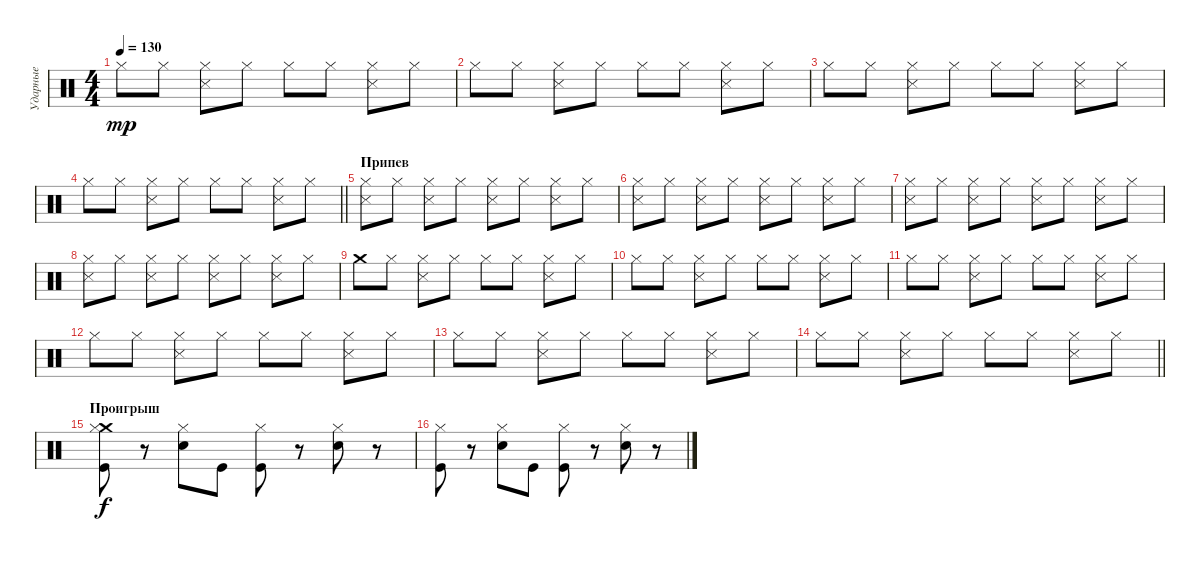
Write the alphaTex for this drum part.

\track ("Ударные" "Ударные") {instrument percussion}
\staff {score}
\articulation defaults
\ts (4 4)
\tempo 130
\clef neutral
\ks c "Hi-Hat (closed)".8{dy mp} "Hi-Hat (closed)".8
("Hi-Hat (closed)" "Snare (side stick) 3").8 "Hi-Hat (closed)".8 "Hi-Hat (closed)".8 "Hi-Hat (closed)".8 ("Hi-Hat (closed)" "Snare (side stick) 3").8 "Hi-Hat (closed)".8 |
"Hi-Hat (closed)".8 "Hi-Hat (closed)".8 ("Hi-Hat (closed)" "Snare (side stick) 3").8 "Hi-Hat (closed)".8 "Hi-Hat (closed)".8 "Hi-Hat (closed)".8 ("Hi-Hat (closed)" "Snare (side stick) 3").8 "Hi-Hat (closed)".8 |
"Hi-Hat (closed)".8 "Hi-Hat (closed)".8 ("Hi-Hat (closed)" "Snare (side stick) 3").8 "Hi-Hat (closed)".8 "Hi-Hat (closed)".8 "Hi-Hat (closed)".8 ("Hi-Hat (closed)" "Snare (side stick) 3").8 "Hi-Hat (closed)".8 |
\barLineRight lightlight "Hi-Hat (closed)".8 "Hi-Hat (closed)".8
("Hi-Hat (closed)" "Snare (side stick) 3").8 "Hi-Hat (closed)".8 "Hi-Hat (closed)".8 "Hi-Hat (closed)".8 ("Hi-Hat (closed)" "Snare (side stick) 3").8 "Hi-Hat (closed)".8 |
\section ("" "Припев")
("Hi-Hat (closed)" "Snare (side stick) 3").8 "Hi-Hat (closed)".8 ("Hi-Hat (closed)" "Snare (side stick) 3").8 "Hi-Hat (closed)".8 ("Hi-Hat (closed)" "Snare (side stick) 3").8 "Hi-Hat (closed)".8 ("Hi-Hat (closed)" "Snare (side stick) 3").8 "Hi-Hat (closed)".8 |
("Hi-Hat (closed)" "Snare (side stick) 3").8 "Hi-Hat (closed)".8 ("Hi-Hat (closed)" "Snare (side stick) 3").8 "Hi-Hat (closed)".8 ("Hi-Hat (closed)" "Snare (side stick) 3").8 "Hi-Hat (closed)".8 ("Hi-Hat (closed)" "Snare (side stick) 3").8 "Hi-Hat (closed)".8 |
("Hi-Hat (closed)" "Snare (side stick) 3").8 "Hi-Hat (closed)".8 ("Hi-Hat (closed)" "Snare (side stick) 3").8 "Hi-Hat (closed)".8 ("Hi-Hat (closed)" "Snare (side stick) 3").8 "Hi-Hat (closed)".8 ("Hi-Hat (closed)" "Snare (side stick) 3").8 "Hi-Hat (closed)".8 |
("Hi-Hat (closed)" "Snare (side stick) 3").8 "Hi-Hat (closed)".8 ("Hi-Hat (closed)" "Snare (side stick) 3").8 "Hi-Hat (closed)".8 ("Hi-Hat (closed)" "Snare (side stick) 3").8 "Hi-Hat (closed)".8 ("Hi-Hat (closed)" "Snare (side stick) 3").8 "Hi-Hat (closed)".8 |
"Crash medium (hit)".8 "Hi-Hat (closed)".8 ("Hi-Hat (closed)" "Snare (side stick) 3").8 "Hi-Hat (closed)".8 "Hi-Hat (closed)".8 "Hi-Hat (closed)".8 ("Hi-Hat (closed)" "Snare (side stick) 3").8 "Hi-Hat (closed)".8 |
"Hi-Hat (closed)".8 "Hi-Hat (closed)".8 ("Hi-Hat (closed)" "Snare (side stick) 3").8 "Hi-Hat (closed)".8 "Hi-Hat (closed)".8 "Hi-Hat (closed)".8 ("Hi-Hat (closed)" "Snare (side stick) 3").8 "Hi-Hat (closed)".8 |
"Hi-Hat (closed)".8 "Hi-Hat (closed)".8 ("Hi-Hat (closed)" "Snare (side stick) 3").8 "Hi-Hat (closed)".8 "Hi-Hat (closed)".8 "Hi-Hat (closed)".8 ("Hi-Hat (closed)" "Snare (side stick) 3").8 "Hi-Hat (closed)".8 |
"Hi-Hat (closed)".8 "Hi-Hat (closed)".8 ("Hi-Hat (closed)" "Snare (side stick) 3").8 "Hi-Hat (closed)".8 "Hi-Hat (closed)".8 "Hi-Hat (closed)".8 ("Hi-Hat (closed)" "Snare (side stick) 3").8 "Hi-Hat (closed)".8 |
"Hi-Hat (closed)".8 "Hi-Hat (closed)".8 ("Hi-Hat (closed)" "Snare (side stick) 3").8 "Hi-Hat (closed)".8 "Hi-Hat (closed)".8 "Hi-Hat (closed)".8 ("Hi-Hat (closed)" "Snare (side stick) 3").8 "Hi-Hat (closed)".8 |
\barLineRight lightlight "Hi-Hat (closed)".8 "Hi-Hat (closed)".8
("Hi-Hat (closed)" "Snare (side stick) 3").8 "Hi-Hat (closed)".8 "Hi-Hat (closed)".8 "Hi-Hat (closed)".8 ("Hi-Hat (closed)" "Snare (side stick) 3").8 "Hi-Hat (closed)".8 |
\section ("" "Проигрыш")
("Crash medium (hit)" "Kick (hit)" "Hi-Hat (closed)").8{dy f} r.8 ("Electric Snare (hit)" "Hi-Hat (closed)").8 "Kick (hit)".8 ("Kick (hit)" "Hi-Hat (closed)").8 r.8 ("Electric Snare (hit)" "Hi-Hat (closed)").8 r.8 |
("Kick (hit)" "Hi-Hat (closed)").8 r.8 ("Electric Snare (hit)" "Hi-Hat (closed)").8 "Kick (hit)".8 ("Kick (hit)" "Hi-Hat (closed)").8 r.8 ("Electric Snare (hit)" "Hi-Hat (closed)").8 r.8
